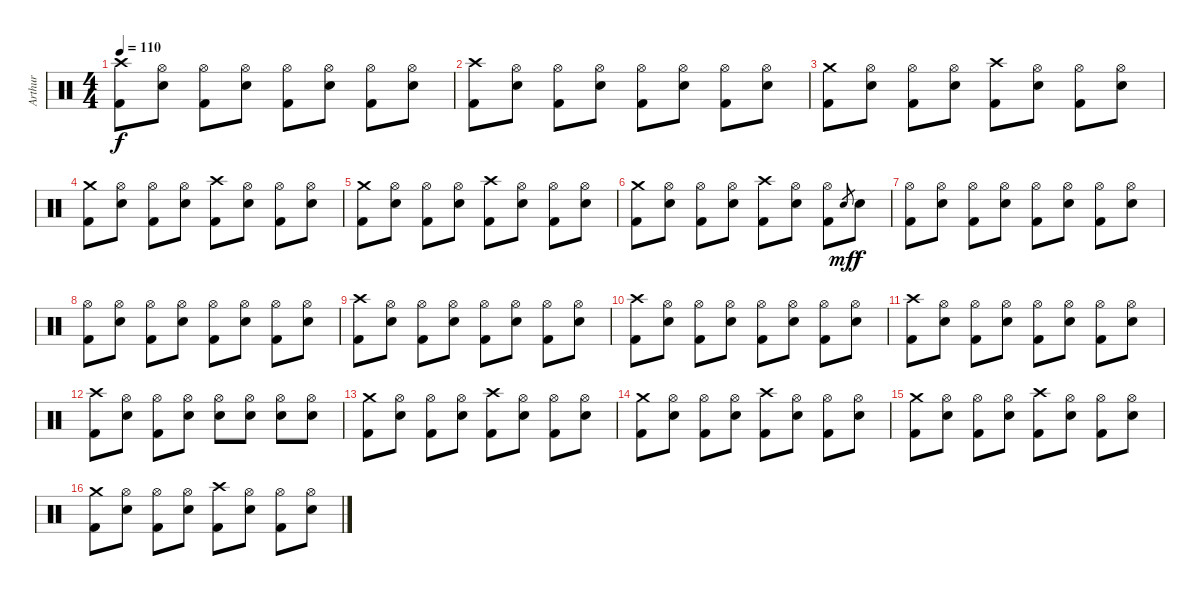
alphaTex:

\track ("Arthur" "Arthur") {instrument percussion}
\staff {score}
\articulation defaults
\ts (4 4)
\tempo 110
\clef neutral
\ks c
("Crash high (hit)" "Kick (hit) 2").8{dy f} ("Hi-Hat (open)" "Electric Snare (hit)").8 ("Hi-Hat (open)" "Kick (hit) 2").8 ("Hi-Hat (open)" "Electric Snare (hit)").8 ("Hi-Hat (open)" "Kick (hit) 2").8 ("Hi-Hat (open)" "Electric Snare (hit)").8 ("Hi-Hat (open)" "Kick (hit) 2").8 ("Hi-Hat (open)" "Electric Snare (hit)").8 |
("Crash high (hit)" "Kick (hit) 2").8 ("Hi-Hat (open)" "Electric Snare (hit)").8 ("Hi-Hat (open)" "Kick (hit) 2").8 ("Hi-Hat (open)" "Electric Snare (hit)").8 ("Hi-Hat (open)" "Kick (hit) 2").8 ("Hi-Hat (open)" "Electric Snare (hit)").8 ("Hi-Hat (open)" "Kick (hit) 2").8 ("Hi-Hat (open)" "Electric Snare (hit)").8 |
("Crash medium (hit)" "Kick (hit) 2").8 ("Hi-Hat (open)" "Electric Snare (hit)").8 ("Hi-Hat (open)" "Kick (hit) 2").8 ("Hi-Hat (open)" "Electric Snare (hit)").8 ("Crash high (hit)" "Kick (hit) 2").8 ("Hi-Hat (open)" "Electric Snare (hit)").8 ("Hi-Hat (open)" "Kick (hit) 2").8 ("Hi-Hat (open)" "Electric Snare (hit)").8 |
("Crash medium (hit)" "Kick (hit) 2").8 ("Hi-Hat (open)" "Electric Snare (hit)").8 ("Hi-Hat (open)" "Kick (hit) 2").8 ("Hi-Hat (open)" "Electric Snare (hit)").8 ("Crash high (hit)" "Kick (hit) 2").8 ("Hi-Hat (open)" "Electric Snare (hit)").8 ("Hi-Hat (open)" "Kick (hit) 2").8 ("Hi-Hat (open)" "Electric Snare (hit)").8 |
("Crash medium (hit)" "Kick (hit) 2").8 ("Hi-Hat (open)" "Electric Snare (hit)").8 ("Hi-Hat (open)" "Kick (hit) 2").8 ("Hi-Hat (open)" "Electric Snare (hit)").8 ("Crash high (hit)" "Kick (hit) 2").8 ("Hi-Hat (open)" "Electric Snare (hit)").8 ("Hi-Hat (open)" "Kick (hit) 2").8 ("Hi-Hat (open)" "Electric Snare (hit)").8 |
("Crash medium (hit)" "Kick (hit) 2").8 ("Hi-Hat (open)" "Electric Snare (hit)").8 ("Hi-Hat (open)" "Kick (hit) 2").8 ("Hi-Hat (open)" "Electric Snare (hit)").8 ("Crash high (hit)" "Kick (hit) 2").8 ("Hi-Hat (open)" "Electric Snare (hit)").8 ("Hi-Hat (open)" "Kick (hit) 2").8 "Electric Snare (hit)".8{gr dy mf} "Electric Snare (hit)".8{dy f} |
("Hi-Hat (open)" "Kick (hit) 2").8 ("Hi-Hat (open)" "Electric Snare (hit)").8 ("Hi-Hat (open)" "Kick (hit) 2").8 ("Hi-Hat (open)" "Electric Snare (hit)").8 ("Hi-Hat (open)" "Kick (hit) 2").8 ("Hi-Hat (open)" "Electric Snare (hit)").8 ("Hi-Hat (open)" "Kick (hit) 2").8 ("Hi-Hat (open)" "Electric Snare (hit)").8 |
("Hi-Hat (open)" "Kick (hit) 2").8 ("Hi-Hat (open)" "Electric Snare (hit)").8 ("Hi-Hat (open)" "Kick (hit) 2").8 ("Hi-Hat (open)" "Electric Snare (hit)").8 ("Hi-Hat (open)" "Kick (hit) 2").8 ("Hi-Hat (open)" "Electric Snare (hit)").8 ("Hi-Hat (open)" "Kick (hit) 2").8 ("Hi-Hat (open)" "Electric Snare (hit)").8 |
("Crash high (hit)" "Kick (hit) 2").8 ("Hi-Hat (open)" "Electric Snare (hit)").8 ("Hi-Hat (open)" "Kick (hit) 2").8 ("Hi-Hat (open)" "Electric Snare (hit)").8 ("Hi-Hat (open)" "Kick (hit) 2").8 ("Hi-Hat (open)" "Electric Snare (hit)").8 ("Hi-Hat (open)" "Kick (hit) 2").8 ("Hi-Hat (open)" "Electric Snare (hit)").8 |
("Crash high (hit)" "Kick (hit) 2").8 ("Hi-Hat (open)" "Electric Snare (hit)").8 ("Hi-Hat (open)" "Kick (hit) 2").8 ("Hi-Hat (open)" "Electric Snare (hit)").8 ("Hi-Hat (open)" "Kick (hit) 2").8 ("Hi-Hat (open)" "Electric Snare (hit)").8 ("Hi-Hat (open)" "Kick (hit) 2").8 ("Hi-Hat (open)" "Electric Snare (hit)").8 |
("Crash high (hit)" "Kick (hit) 2").8 ("Hi-Hat (open)" "Electric Snare (hit)").8 ("Hi-Hat (open)" "Kick (hit) 2").8 ("Hi-Hat (open)" "Electric Snare (hit)").8 ("Hi-Hat (open)" "Kick (hit) 2").8 ("Hi-Hat (open)" "Electric Snare (hit)").8 ("Hi-Hat (open)" "Kick (hit) 2").8 ("Hi-Hat (open)" "Electric Snare (hit)").8 |
("Crash high (hit)" "Kick (hit) 2").8 ("Hi-Hat (open)" "Electric Snare (hit)").8 ("Hi-Hat (open)" "Kick (hit) 2").8 ("Hi-Hat (open)" "Electric Snare (hit)").8 ("Hi-Hat (open)" "Electric Snare (hit)").8 ("Hi-Hat (open)" "Electric Snare (hit)").8 ("Hi-Hat (open)" "Electric Snare (hit)").8 ("Hi-Hat (open)" "Electric Snare (hit)").8 |
("Crash medium (hit)" "Kick (hit) 2").8 ("Hi-Hat (open)" "Electric Snare (hit)").8 ("Hi-Hat (open)" "Kick (hit) 2").8 ("Hi-Hat (open)" "Electric Snare (hit)").8 ("Crash high (hit)" "Kick (hit) 2").8 ("Hi-Hat (open)" "Electric Snare (hit)").8 ("Hi-Hat (open)" "Kick (hit) 2").8 ("Hi-Hat (open)" "Electric Snare (hit)").8 |
("Crash medium (hit)" "Kick (hit) 2").8 ("Hi-Hat (open)" "Electric Snare (hit)").8 ("Hi-Hat (open)" "Kick (hit) 2").8 ("Hi-Hat (open)" "Electric Snare (hit)").8 ("Crash high (hit)" "Kick (hit) 2").8 ("Hi-Hat (open)" "Electric Snare (hit)").8 ("Hi-Hat (open)" "Kick (hit) 2").8 ("Hi-Hat (open)" "Electric Snare (hit)").8 |
("Crash medium (hit)" "Kick (hit) 2").8 ("Hi-Hat (open)" "Electric Snare (hit)").8 ("Hi-Hat (open)" "Kick (hit) 2").8 ("Hi-Hat (open)" "Electric Snare (hit)").8 ("Crash high (hit)" "Kick (hit) 2").8 ("Hi-Hat (open)" "Electric Snare (hit)").8 ("Hi-Hat (open)" "Kick (hit) 2").8 ("Hi-Hat (open)" "Electric Snare (hit)").8 |
("Crash medium (hit)" "Kick (hit) 2").8 ("Hi-Hat (open)" "Electric Snare (hit)").8 ("Hi-Hat (open)" "Kick (hit) 2").8 ("Hi-Hat (open)" "Electric Snare (hit)").8 ("Crash high (hit)" "Kick (hit) 2").8 ("Hi-Hat (open)" "Electric Snare (hit)").8 ("Hi-Hat (open)" "Kick (hit) 2").8 ("Hi-Hat (open)" "Electric Snare (hit)").8
